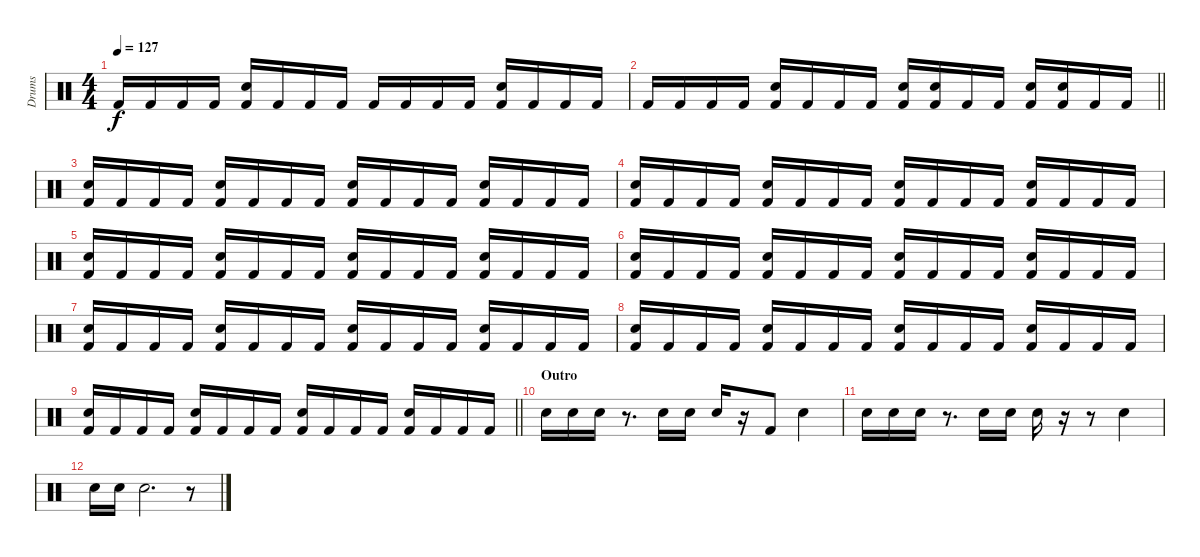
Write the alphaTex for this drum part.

\track ("Drums" "Drums") {instrument percussion}
\staff {score}
\articulation defaults
\ts (4 4)
\tempo 127
\clef neutral
\ks c "Kick (hit) 2".16{dy f} "Kick (hit) 2".16 "Kick (hit) 2".16 "Kick (hit) 2".16
("Kick (hit) 2" "Electric Snare (hit)").16 "Kick (hit) 2".16 "Kick (hit) 2".16 "Kick (hit) 2".16 "Kick (hit) 2".16 "Kick (hit) 2".16 "Kick (hit) 2".16 "Kick (hit) 2".16 ("Kick (hit) 2" "Electric Snare (hit)").16 "Kick (hit) 2".16 "Kick (hit) 2".16 "Kick (hit) 2".16 |
\barLineRight lightlight "Kick (hit) 2".16 "Kick (hit) 2".16 "Kick (hit) 2".16 "Kick (hit) 2".16
("Kick (hit) 2" "Electric Snare (hit)").16 "Kick (hit) 2".16 "Kick (hit) 2".16 "Kick (hit) 2".16 ("Kick (hit) 2" "Electric Snare (hit)").16 ("Kick (hit) 2" "Electric Snare (hit)").16 "Kick (hit) 2".16 "Kick (hit) 2".16 ("Kick (hit) 2" "Electric Snare (hit)").16 ("Kick (hit) 2" "Electric Snare (hit)").16 "Kick (hit) 2".16 "Kick (hit) 2".16 |
\section ("" "")
("Kick (hit) 2" "Electric Snare (hit)").16 "Kick (hit) 2".16 "Kick (hit) 2".16 "Kick (hit) 2".16 ("Kick (hit) 2" "Electric Snare (hit)").16 "Kick (hit) 2".16 "Kick (hit) 2".16 "Kick (hit) 2".16 ("Kick (hit) 2" "Electric Snare (hit)").16 "Kick (hit) 2".16 "Kick (hit) 2".16 "Kick (hit) 2".16 ("Kick (hit) 2" "Electric Snare (hit)").16 "Kick (hit) 2".16 "Kick (hit) 2".16 "Kick (hit) 2".16 |
("Kick (hit) 2" "Electric Snare (hit)").16 "Kick (hit) 2".16 "Kick (hit) 2".16 "Kick (hit) 2".16 ("Kick (hit) 2" "Electric Snare (hit)").16 "Kick (hit) 2".16 "Kick (hit) 2".16 "Kick (hit) 2".16 ("Kick (hit) 2" "Electric Snare (hit)").16 "Kick (hit) 2".16 "Kick (hit) 2".16 "Kick (hit) 2".16 ("Kick (hit) 2" "Electric Snare (hit)").16 "Kick (hit) 2".16 "Kick (hit) 2".16 "Kick (hit) 2".16 |
("Kick (hit) 2" "Electric Snare (hit)").16 "Kick (hit) 2".16 "Kick (hit) 2".16 "Kick (hit) 2".16 ("Kick (hit) 2" "Electric Snare (hit)").16 "Kick (hit) 2".16 "Kick (hit) 2".16 "Kick (hit) 2".16 ("Kick (hit) 2" "Electric Snare (hit)").16 "Kick (hit) 2".16 "Kick (hit) 2".16 "Kick (hit) 2".16 ("Kick (hit) 2" "Electric Snare (hit)").16 "Kick (hit) 2".16 "Kick (hit) 2".16 "Kick (hit) 2".16 |
("Kick (hit) 2" "Electric Snare (hit)").16 "Kick (hit) 2".16 "Kick (hit) 2".16 "Kick (hit) 2".16 ("Kick (hit) 2" "Electric Snare (hit)").16 "Kick (hit) 2".16 "Kick (hit) 2".16 "Kick (hit) 2".16 ("Kick (hit) 2" "Electric Snare (hit)").16 "Kick (hit) 2".16 "Kick (hit) 2".16 "Kick (hit) 2".16 ("Kick (hit) 2" "Electric Snare (hit)").16 "Kick (hit) 2".16 "Kick (hit) 2".16 "Kick (hit) 2".16 |
("Kick (hit) 2" "Electric Snare (hit)").16 "Kick (hit) 2".16 "Kick (hit) 2".16 "Kick (hit) 2".16 ("Kick (hit) 2" "Electric Snare (hit)").16 "Kick (hit) 2".16 "Kick (hit) 2".16 "Kick (hit) 2".16 ("Kick (hit) 2" "Electric Snare (hit)").16 "Kick (hit) 2".16 "Kick (hit) 2".16 "Kick (hit) 2".16 ("Kick (hit) 2" "Electric Snare (hit)").16 "Kick (hit) 2".16 "Kick (hit) 2".16 "Kick (hit) 2".16 |
("Kick (hit) 2" "Electric Snare (hit)").16 "Kick (hit) 2".16 "Kick (hit) 2".16 "Kick (hit) 2".16 ("Kick (hit) 2" "Electric Snare (hit)").16 "Kick (hit) 2".16 "Kick (hit) 2".16 "Kick (hit) 2".16 ("Kick (hit) 2" "Electric Snare (hit)").16 "Kick (hit) 2".16 "Kick (hit) 2".16 "Kick (hit) 2".16 ("Kick (hit) 2" "Electric Snare (hit)").16 "Kick (hit) 2".16 "Kick (hit) 2".16 "Kick (hit) 2".16 |
\barLineRight lightlight
("Kick (hit) 2" "Electric Snare (hit)").16 "Kick (hit) 2".16 "Kick (hit) 2".16 "Kick (hit) 2".16 ("Kick (hit) 2" "Electric Snare (hit)").16 "Kick (hit) 2".16 "Kick (hit) 2".16 "Kick (hit) 2".16 ("Kick (hit) 2" "Electric Snare (hit)").16 "Kick (hit) 2".16 "Kick (hit) 2".16 "Kick (hit) 2".16 ("Kick (hit) 2" "Electric Snare (hit)").16 "Kick (hit) 2".16 "Kick (hit) 2".16 "Kick (hit) 2".16 |
\section ("" "Outro")
"Electric Snare (hit)".16 "Electric Snare (hit)".16 "Electric Snare (hit)".16 r.8{d} "Electric Snare (hit)".16 "Electric Snare (hit)".16 "Electric Snare (hit)".16 r.16 "Kick (hit) 2".8 "Electric Snare (hit)".4 |
"Electric Snare (hit)".16 "Electric Snare (hit)".16 "Electric Snare (hit)".16 r.8{d} "Electric Snare (hit)".16 "Electric Snare (hit)".16 "Electric Snare (hit)".16 r.16 r.8 "Electric Snare (hit)".4 |
"Electric Snare (hit)".16 "Electric Snare (hit)".16 "Electric Snare (hit)".2{d} r.8
